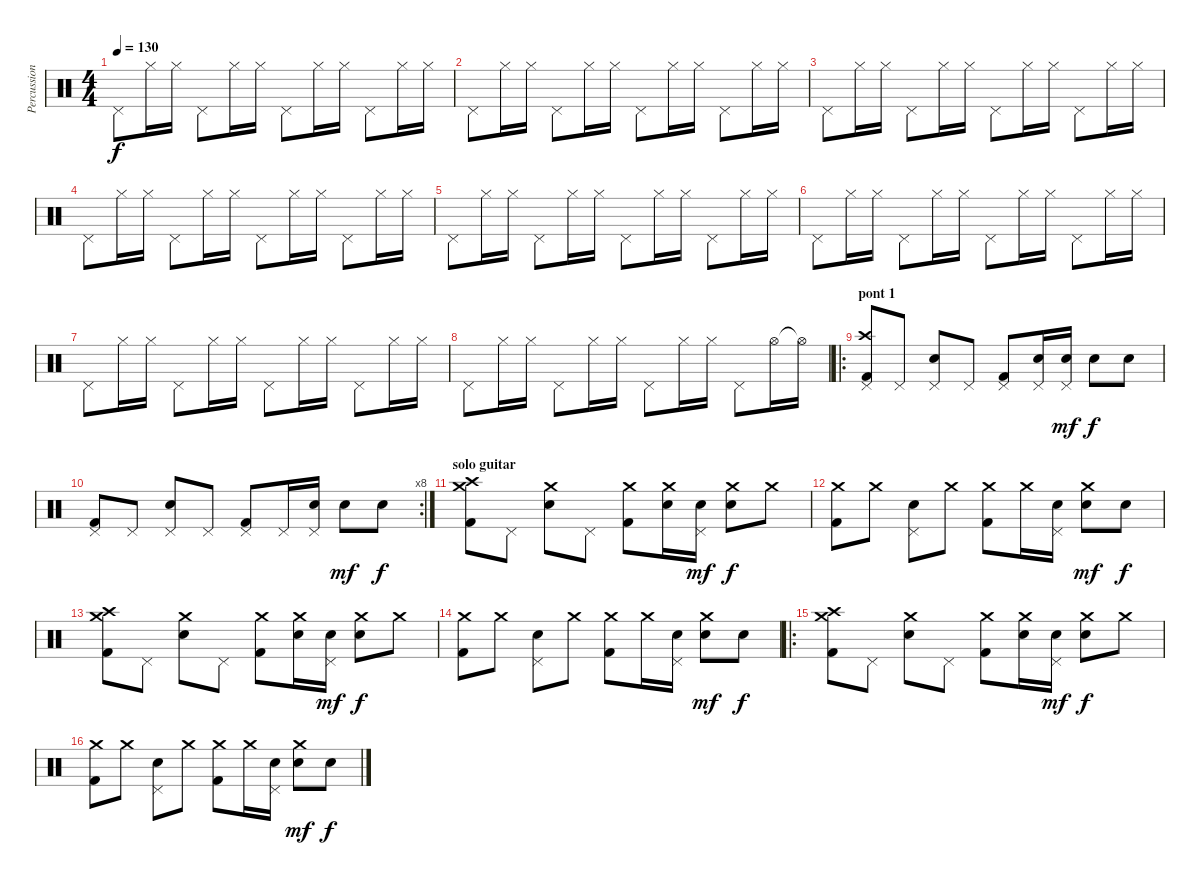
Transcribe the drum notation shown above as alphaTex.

\track ("Percussions" "Percussion") {instrument percussion}
\staff {score}
\articulation defaults
\ts (4 4)
\tempo 130
\clef neutral
\ks c "Pedal Hi-Hat (hit)".8{dy f} "Hi-Hat (closed)".16 "Hi-Hat (closed)".16 "Pedal Hi-Hat (hit)".8 "Hi-Hat (closed)".16 "Hi-Hat (closed)".16 "Pedal Hi-Hat (hit)".8 "Hi-Hat (closed)".16 "Hi-Hat (closed)".16 "Pedal Hi-Hat (hit)".8 "Hi-Hat (closed)".16 "Hi-Hat (closed)".16
|
"Pedal Hi-Hat (hit)".8 "Hi-Hat (closed)".16 "Hi-Hat (closed)".16 "Pedal Hi-Hat (hit)".8 "Hi-Hat (closed)".16 "Hi-Hat (closed)".16 "Pedal Hi-Hat (hit)".8 "Hi-Hat (closed)".16 "Hi-Hat (closed)".16 "Pedal Hi-Hat (hit)".8 "Hi-Hat (closed)".16 "Hi-Hat (closed)".16 |
"Pedal Hi-Hat (hit)".8 "Hi-Hat (closed)".16 "Hi-Hat (closed)".16 "Pedal Hi-Hat (hit)".8 "Hi-Hat (closed)".16 "Hi-Hat (closed)".16 "Pedal Hi-Hat (hit)".8 "Hi-Hat (closed)".16 "Hi-Hat (closed)".16 "Pedal Hi-Hat (hit)".8 "Hi-Hat (closed)".16 "Hi-Hat (closed)".16 |
"Pedal Hi-Hat (hit)".8 "Hi-Hat (closed)".16 "Hi-Hat (closed)".16 "Pedal Hi-Hat (hit)".8 "Hi-Hat (closed)".16 "Hi-Hat (closed)".16 "Pedal Hi-Hat (hit)".8 "Hi-Hat (closed)".16 "Hi-Hat (closed)".16 "Pedal Hi-Hat (hit)".8 "Hi-Hat (closed)".16 "Hi-Hat (closed)".16 |
"Pedal Hi-Hat (hit)".8 "Hi-Hat (closed)".16 "Hi-Hat (closed)".16 "Pedal Hi-Hat (hit)".8 "Hi-Hat (closed)".16 "Hi-Hat (closed)".16 "Pedal Hi-Hat (hit)".8 "Hi-Hat (closed)".16 "Hi-Hat (closed)".16 "Pedal Hi-Hat (hit)".8 "Hi-Hat (closed)".16 "Hi-Hat (closed)".16 |
"Pedal Hi-Hat (hit)".8 "Hi-Hat (closed)".16 "Hi-Hat (closed)".16 "Pedal Hi-Hat (hit)".8 "Hi-Hat (closed)".16 "Hi-Hat (closed)".16 "Pedal Hi-Hat (hit)".8 "Hi-Hat (closed)".16 "Hi-Hat (closed)".16 "Pedal Hi-Hat (hit)".8 "Hi-Hat (closed)".16 "Hi-Hat (closed)".16 |
"Pedal Hi-Hat (hit)".8 "Hi-Hat (closed)".16 "Hi-Hat (closed)".16 "Pedal Hi-Hat (hit)".8 "Hi-Hat (closed)".16 "Hi-Hat (closed)".16 "Pedal Hi-Hat (hit)".8 "Hi-Hat (closed)".16 "Hi-Hat (closed)".16 "Pedal Hi-Hat (hit)".8 "Hi-Hat (closed)".16 "Hi-Hat (closed)".16 |
"Pedal Hi-Hat (hit)".8 "Hi-Hat (closed)".16 "Hi-Hat (closed)".16 "Pedal Hi-Hat (hit)".8 "Hi-Hat (closed)".16 "Hi-Hat (closed)".16 "Pedal Hi-Hat (hit)".8 "Hi-Hat (closed)".16 "Hi-Hat (closed)".16 "Pedal Hi-Hat (hit)".8 "Hi-Hat (open)".16 "Hi-Hat (open)"{t}.16 |
\ro
\section ("" "pont 1")
("Pedal Hi-Hat (hit)" "Crash high (hit)" "Kick (hit) 2").8 "Pedal Hi-Hat (hit)".8 ("Pedal Hi-Hat (hit)" "Electric Snare (hit)").8 "Pedal Hi-Hat (hit)".8 ("Pedal Hi-Hat (hit)" "Kick (hit) 2").8 ("Pedal Hi-Hat (hit)" "Electric Snare (hit)").16 ("Pedal Hi-Hat (hit)" "Electric Snare (hit)").16{dy mf} "Electric Snare (hit)".8{dy f} "Electric Snare (hit)".8 |
\rc 8
("Pedal Hi-Hat (hit)" "Kick (hit) 2").8 "Pedal Hi-Hat (hit)".8 ("Pedal Hi-Hat (hit)" "Electric Snare (hit)").8 "Pedal Hi-Hat (hit)".8 ("Pedal Hi-Hat (hit)" "Kick (hit) 2").8 "Pedal Hi-Hat (hit)".16 ("Pedal Hi-Hat (hit)" "Electric Snare (hit)").16 "Electric Snare (hit)".8{dy mf} "Electric Snare (hit)".8{dy f} |
\section ("" "solo guitar")
("Crash medium (hit)" "Crash high (hit)" "Kick (hit) 2").8 "Pedal Hi-Hat (hit)".8 ("Crash medium (hit)" "Electric Snare (hit)").8 "Pedal Hi-Hat (hit)".8 ("Crash medium (hit)" "Kick (hit) 2").8 ("Crash medium (hit)" "Electric Snare (hit)").16 ("Pedal Hi-Hat (hit)" "Electric Snare (hit)").16{dy mf} ("Crash medium (hit)" "Electric Snare (hit)").8{dy f} "Crash medium (hit)".8 |
("Crash medium (hit)" "Kick (hit) 2").8 "Crash medium (hit)".8 ("Pedal Hi-Hat (hit)" "Electric Snare (hit)").8 "Crash medium (hit)".8 ("Crash medium (hit)" "Kick (hit) 2").8 "Crash medium (hit)".16 ("Pedal Hi-Hat (hit)" "Electric Snare (hit)").16 ("Crash medium (hit)" "Electric Snare (hit)").8{dy mf} "Electric Snare (hit)".8{dy f} |
("Crash medium (hit)" "Crash high (hit)" "Kick (hit) 2").8 "Pedal Hi-Hat (hit)".8 ("Crash medium (hit)" "Electric Snare (hit)").8 "Pedal Hi-Hat (hit)".8 ("Crash medium (hit)" "Kick (hit) 2").8 ("Crash medium (hit)" "Electric Snare (hit)").16 ("Pedal Hi-Hat (hit)" "Electric Snare (hit)").16{dy mf} ("Crash medium (hit)" "Electric Snare (hit)").8{dy f} "Crash medium (hit)".8 |
("Crash medium (hit)" "Kick (hit) 2").8 "Crash medium (hit)".8 ("Pedal Hi-Hat (hit)" "Electric Snare (hit)").8 "Crash medium (hit)".8 ("Crash medium (hit)" "Kick (hit) 2").8 "Crash medium (hit)".16 ("Pedal Hi-Hat (hit)" "Electric Snare (hit)").16 ("Crash medium (hit)" "Electric Snare (hit)").8{dy mf} "Electric Snare (hit)".8{dy f} |
\ro
("Crash medium (hit)" "Crash high (hit)" "Kick (hit) 2").8 "Pedal Hi-Hat (hit)".8 ("Crash medium (hit)" "Electric Snare (hit)").8 "Pedal Hi-Hat (hit)".8 ("Crash medium (hit)" "Kick (hit) 2").8 ("Crash medium (hit)" "Electric Snare (hit)").16 ("Pedal Hi-Hat (hit)" "Electric Snare (hit)").16{dy mf} ("Crash medium (hit)" "Electric Snare (hit)").8{dy f} "Crash medium (hit)".8 |
("Crash medium (hit)" "Kick (hit) 2").8 "Crash medium (hit)".8 ("Pedal Hi-Hat (hit)" "Electric Snare (hit)").8 "Crash medium (hit)".8 ("Crash medium (hit)" "Kick (hit) 2").8 "Crash medium (hit)".16 ("Pedal Hi-Hat (hit)" "Electric Snare (hit)").16 ("Crash medium (hit)" "Electric Snare (hit)").8{dy mf} "Electric Snare (hit)".8{dy f}
